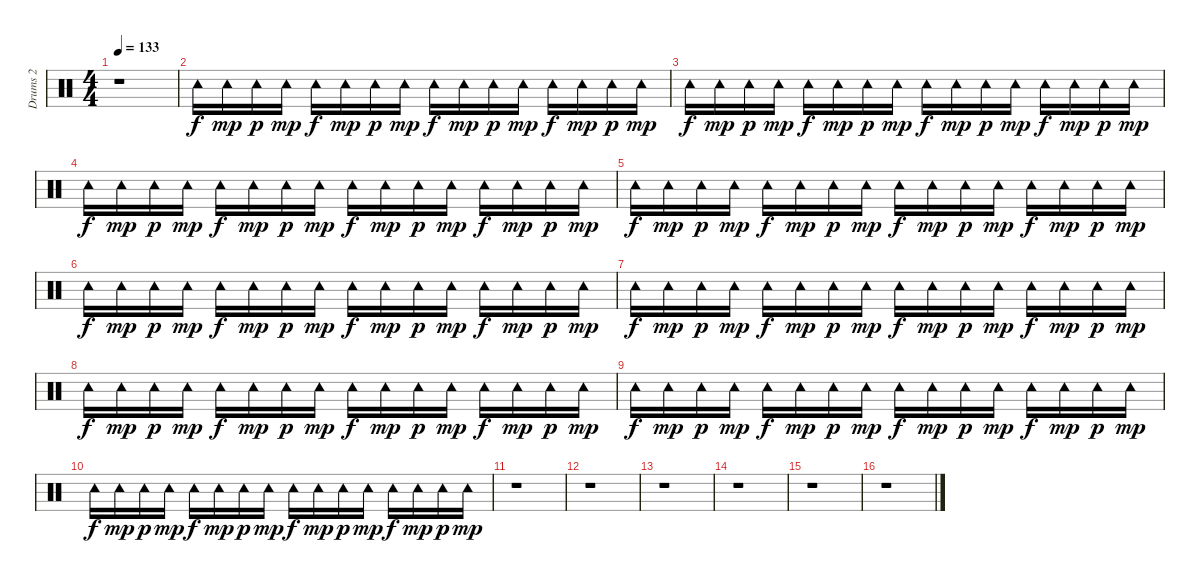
\track ("Drums 2" "Drums 2") {instrument percussion}
\staff {score}
\articulation defaults
\ts (4 4)
\tempo 133
\clef neutral
\ks c
r.1{dy f} |
"Tambourine (hit)".16 "Tambourine (hit)".16{dy mp} "Tambourine (hit)".16{dy p} "Tambourine (hit)".16{dy mp} "Tambourine (hit)".16{dy f} "Tambourine (hit)".16{dy mp} "Tambourine (hit)".16{dy p} "Tambourine (hit)".16{dy mp} "Tambourine (hit)".16{dy f} "Tambourine (hit)".16{dy mp} "Tambourine (hit)".16{dy p} "Tambourine (hit)".16{dy mp} "Tambourine (hit)".16{dy f} "Tambourine (hit)".16{dy mp} "Tambourine (hit)".16{dy p} "Tambourine (hit)".16{dy mp} |
"Tambourine (hit)".16{dy f} "Tambourine (hit)".16{dy mp} "Tambourine (hit)".16{dy p} "Tambourine (hit)".16{dy mp} "Tambourine (hit)".16{dy f} "Tambourine (hit)".16{dy mp} "Tambourine (hit)".16{dy p} "Tambourine (hit)".16{dy mp} "Tambourine (hit)".16{dy f} "Tambourine (hit)".16{dy mp} "Tambourine (hit)".16{dy p} "Tambourine (hit)".16{dy mp} "Tambourine (hit)".16{dy f} "Tambourine (hit)".16{dy mp} "Tambourine (hit)".16{dy p} "Tambourine (hit)".16{dy mp} |
"Tambourine (hit)".16{dy f} "Tambourine (hit)".16{dy mp} "Tambourine (hit)".16{dy p} "Tambourine (hit)".16{dy mp} "Tambourine (hit)".16{dy f} "Tambourine (hit)".16{dy mp} "Tambourine (hit)".16{dy p} "Tambourine (hit)".16{dy mp} "Tambourine (hit)".16{dy f} "Tambourine (hit)".16{dy mp} "Tambourine (hit)".16{dy p} "Tambourine (hit)".16{dy mp} "Tambourine (hit)".16{dy f} "Tambourine (hit)".16{dy mp} "Tambourine (hit)".16{dy p} "Tambourine (hit)".16{dy mp} |
"Tambourine (hit)".16{dy f} "Tambourine (hit)".16{dy mp} "Tambourine (hit)".16{dy p} "Tambourine (hit)".16{dy mp} "Tambourine (hit)".16{dy f} "Tambourine (hit)".16{dy mp} "Tambourine (hit)".16{dy p} "Tambourine (hit)".16{dy mp} "Tambourine (hit)".16{dy f} "Tambourine (hit)".16{dy mp} "Tambourine (hit)".16{dy p} "Tambourine (hit)".16{dy mp} "Tambourine (hit)".16{dy f} "Tambourine (hit)".16{dy mp} "Tambourine (hit)".16{dy p} "Tambourine (hit)".16{dy mp} |
"Tambourine (hit)".16{dy f} "Tambourine (hit)".16{dy mp} "Tambourine (hit)".16{dy p} "Tambourine (hit)".16{dy mp} "Tambourine (hit)".16{dy f} "Tambourine (hit)".16{dy mp} "Tambourine (hit)".16{dy p} "Tambourine (hit)".16{dy mp} "Tambourine (hit)".16{dy f} "Tambourine (hit)".16{dy mp} "Tambourine (hit)".16{dy p} "Tambourine (hit)".16{dy mp} "Tambourine (hit)".16{dy f} "Tambourine (hit)".16{dy mp} "Tambourine (hit)".16{dy p} "Tambourine (hit)".16{dy mp} |
"Tambourine (hit)".16{dy f} "Tambourine (hit)".16{dy mp} "Tambourine (hit)".16{dy p} "Tambourine (hit)".16{dy mp} "Tambourine (hit)".16{dy f} "Tambourine (hit)".16{dy mp} "Tambourine (hit)".16{dy p} "Tambourine (hit)".16{dy mp} "Tambourine (hit)".16{dy f} "Tambourine (hit)".16{dy mp} "Tambourine (hit)".16{dy p} "Tambourine (hit)".16{dy mp} "Tambourine (hit)".16{dy f} "Tambourine (hit)".16{dy mp} "Tambourine (hit)".16{dy p} "Tambourine (hit)".16{dy mp} |
"Tambourine (hit)".16{dy f} "Tambourine (hit)".16{dy mp} "Tambourine (hit)".16{dy p} "Tambourine (hit)".16{dy mp} "Tambourine (hit)".16{dy f} "Tambourine (hit)".16{dy mp} "Tambourine (hit)".16{dy p} "Tambourine (hit)".16{dy mp} "Tambourine (hit)".16{dy f} "Tambourine (hit)".16{dy mp} "Tambourine (hit)".16{dy p} "Tambourine (hit)".16{dy mp} "Tambourine (hit)".16{dy f} "Tambourine (hit)".16{dy mp} "Tambourine (hit)".16{dy p} "Tambourine (hit)".16{dy mp} |
"Tambourine (hit)".16{dy f} "Tambourine (hit)".16{dy mp} "Tambourine (hit)".16{dy p} "Tambourine (hit)".16{dy mp} "Tambourine (hit)".16{dy f} "Tambourine (hit)".16{dy mp} "Tambourine (hit)".16{dy p} "Tambourine (hit)".16{dy mp} "Tambourine (hit)".16{dy f} "Tambourine (hit)".16{dy mp} "Tambourine (hit)".16{dy p} "Tambourine (hit)".16{dy mp} "Tambourine (hit)".16{dy f} "Tambourine (hit)".16{dy mp} "Tambourine (hit)".16{dy p} "Tambourine (hit)".16{dy mp} |
"Tambourine (hit)".16{dy f} "Tambourine (hit)".16{dy mp} "Tambourine (hit)".16{dy p} "Tambourine (hit)".16{dy mp} "Tambourine (hit)".16{dy f} "Tambourine (hit)".16{dy mp} "Tambourine (hit)".16{dy p} "Tambourine (hit)".16{dy mp} "Tambourine (hit)".16{dy f} "Tambourine (hit)".16{dy mp} "Tambourine (hit)".16{dy p} "Tambourine (hit)".16{dy mp} "Tambourine (hit)".16{dy f} "Tambourine (hit)".16{dy mp} "Tambourine (hit)".16{dy p} "Tambourine (hit)".16{dy mp} |
r.1 |
r.1 |
r.1 |
r.1 |
r.1 |
r.1
